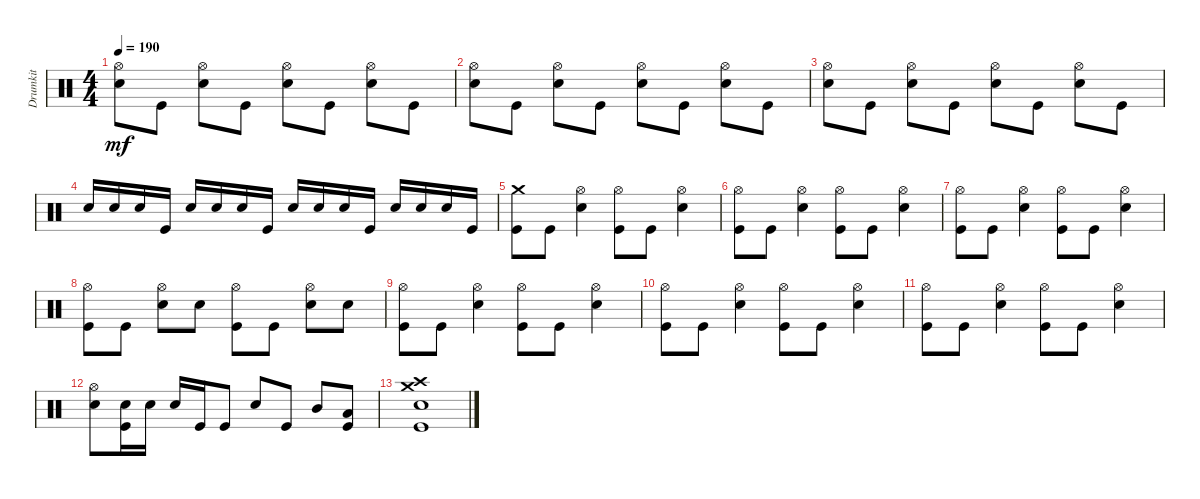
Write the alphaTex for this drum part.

\track ("Drumkit" "Drumkit") {instrument percussion}
\staff {score}
\articulation defaults
\ts (4 4)
\tempo 190
\clef neutral
\ks c
("Snare (hit) 2" "Hi-Hat (open)").8{dy mf} "Kick (hit)".8 ("Snare (hit) 2" "Hi-Hat (open)").8 "Kick (hit)".8 ("Snare (hit) 2" "Hi-Hat (open)").8 "Kick (hit)".8 ("Snare (hit) 2" "Hi-Hat (open)").8 "Kick (hit)".8 |
("Snare (hit) 2" "Hi-Hat (open)").8 "Kick (hit)".8 ("Snare (hit) 2" "Hi-Hat (open)").8 "Kick (hit)".8 ("Snare (hit) 2" "Hi-Hat (open)").8 "Kick (hit)".8 ("Snare (hit) 2" "Hi-Hat (open)").8 "Kick (hit)".8 |
("Snare (hit) 2" "Hi-Hat (open)").8 "Kick (hit)".8 ("Snare (hit) 2" "Hi-Hat (open)").8 "Kick (hit)".8 ("Snare (hit) 2" "Hi-Hat (open)").8 "Kick (hit)".8 ("Snare (hit) 2" "Hi-Hat (open)").8 "Kick (hit)".8 |
"Snare (hit) 2".16 "Snare (hit) 2".16 "Snare (hit) 2".16 "Kick (hit)".16 "Snare (hit) 2".16 "Snare (hit) 2".16 "Snare (hit) 2".16 "Kick (hit)".16 "Snare (hit) 2".16 "Snare (hit) 2".16 "Snare (hit) 2".16 "Kick (hit)".16 "Snare (hit) 2".16 "Snare (hit) 2".16 "Snare (hit) 2".16 "Kick (hit)".16 |
("Kick (hit)" "Crash medium (hit)").8 "Kick (hit)".8 ("Snare (hit) 2" "Hi-Hat (open)").4 ("Kick (hit)" "Hi-Hat (open)").8 "Kick (hit)".8 ("Snare (hit) 2" "Hi-Hat (open)").4 |
("Kick (hit)" "Hi-Hat (open)").8 "Kick (hit)".8 ("Snare (hit) 2" "Hi-Hat (open)").4 ("Kick (hit)" "Hi-Hat (open)").8 "Kick (hit)".8 ("Snare (hit) 2" "Hi-Hat (open)").4 |
("Kick (hit)" "Hi-Hat (open)").8 "Kick (hit)".8 ("Snare (hit) 2" "Hi-Hat (open)").4 ("Kick (hit)" "Hi-Hat (open)").8 "Kick (hit)".8 ("Snare (hit) 2" "Hi-Hat (open)").4 |
("Kick (hit)" "Hi-Hat (open)").8 "Kick (hit)".8 ("Snare (hit) 2" "Hi-Hat (open)").8 "Snare (hit) 2".8 ("Kick (hit)" "Hi-Hat (open)").8 "Kick (hit)".8 ("Snare (hit) 2" "Hi-Hat (open)").8 "Snare (hit) 2".8 |
("Kick (hit)" "Hi-Hat (open)").8 "Kick (hit)".8 ("Snare (hit) 2" "Hi-Hat (open)").4 ("Kick (hit)" "Hi-Hat (open)").8 "Kick (hit)".8 ("Snare (hit) 2" "Hi-Hat (open)").4 |
("Kick (hit)" "Hi-Hat (open)").8 "Kick (hit)".8 ("Snare (hit) 2" "Hi-Hat (open)").4 ("Kick (hit)" "Hi-Hat (open)").8 "Kick (hit)".8 ("Snare (hit) 2" "Hi-Hat (open)").4 |
("Kick (hit)" "Hi-Hat (open)").8 "Kick (hit)".8 ("Snare (hit) 2" "Hi-Hat (open)").4 ("Kick (hit)" "Hi-Hat (open)").8 "Kick (hit)".8 ("Snare (hit) 2" "Hi-Hat (open)").4 |
("Snare (hit) 2" "Hi-Hat (open)").8 ("Kick (hit)" "Snare (hit) 2").16 "Snare (hit) 2".16 "Snare (hit) 2".16 "Kick (hit)".16 "Kick (hit)".8 "Snare (hit) 2".8 "Kick (hit)".8 "Mid Tom (hit)".8 ("Kick (hit)" "Low Tom (hit)").8 |
("Crash high (hit)" "Crash medium (hit)" "Kick (hit)" "Snare (hit) 2").1
